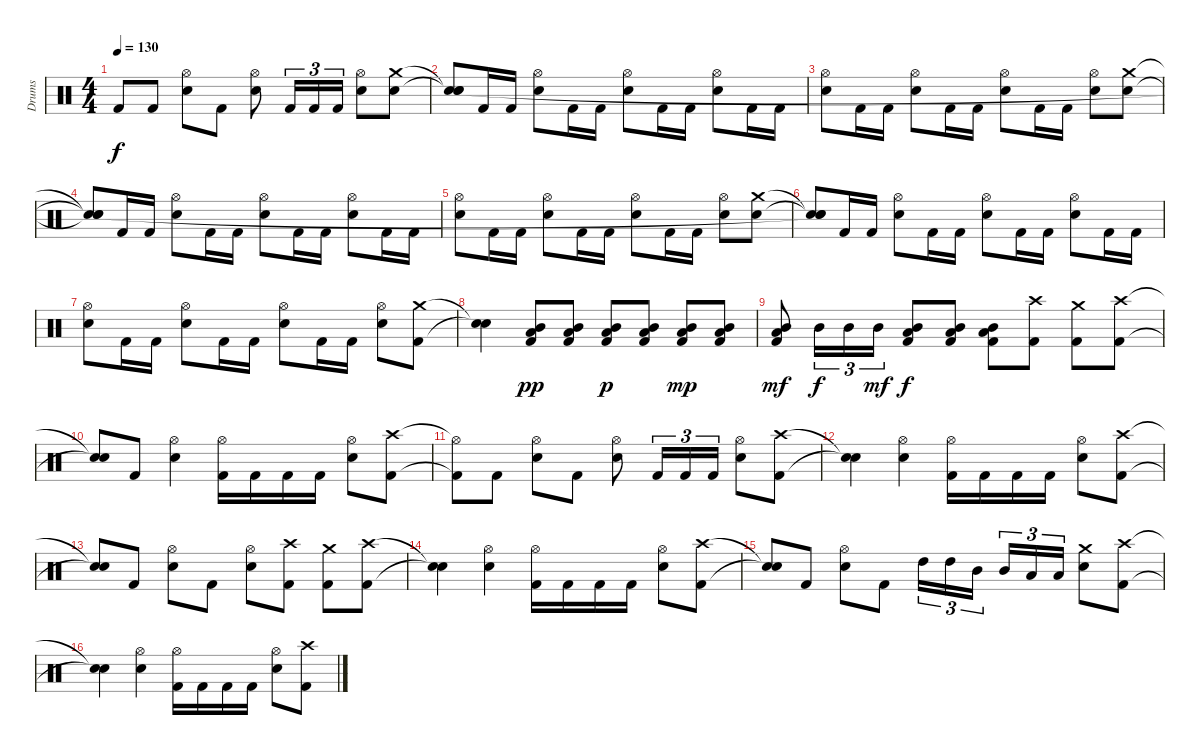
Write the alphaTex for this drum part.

\track ("Drums" "Drums") {instrument percussion}
\staff {score}
\articulation defaults
\ts (4 4)
\tempo 130
\clef neutral
\ks c "Kick (hit) 2".8{dy f} "Kick (hit) 2".8
("Hi-Hat (open)" "Snare (hit) 2").8 "Kick (hit) 2".8 ("Hi-Hat (open)" "Snare (hit) 2").8 "Kick (hit) 2".16{tu (3 2)} "Kick (hit) 2".16{tu (3 2)} "Kick (hit) 2".16{tu (3 2)} ("Hi-Hat (open)" "Snare (hit) 2").8 ("Crash medium (hit)" "Snare (hit) 2").8 |
("Snare (hit)"{t} "Snare (hit)"{t} "Snare (hit)").8 "Kick (hit) 2".16 "Kick (hit) 2".16 ("Hi-Hat (open)" "Snare (hit) 2").8 "Kick (hit) 2".16 "Kick (hit) 2".16 ("Hi-Hat (open)" "Snare (hit) 2").8 "Kick (hit) 2".16 "Kick (hit) 2".16 ("Hi-Hat (open)" "Snare (hit) 2").8 "Kick (hit) 2".16 "Kick (hit) 2".16 |
("Hi-Hat (open)" "Snare (hit) 2").8 "Kick (hit) 2".16 "Kick (hit) 2".16 ("Hi-Hat (open)" "Snare (hit) 2").8 "Kick (hit) 2".16 "Kick (hit) 2".16 ("Hi-Hat (open)" "Snare (hit) 2").8 "Kick (hit) 2".16 "Kick (hit) 2".16 ("Hi-Hat (open)" "Snare (hit) 2").8 ("Crash medium (hit)" "Snare (hit) 2").8 |
("Snare (hit)"{t} "Snare (hit)"{t} "Snare (hit)"{t}).8 "Kick (hit) 2".16 "Kick (hit) 2".16 ("Hi-Hat (open)" "Snare (hit) 2").8 "Kick (hit) 2".16 "Kick (hit) 2".16 ("Hi-Hat (open)" "Snare (hit) 2").8 "Kick (hit) 2".16 "Kick (hit) 2".16 ("Hi-Hat (open)" "Snare (hit) 2").8 "Kick (hit) 2".16 "Kick (hit) 2".16 |
("Hi-Hat (open)" "Snare (hit) 2").8 "Kick (hit) 2".16 "Kick (hit) 2".16 ("Hi-Hat (open)" "Snare (hit) 2").8 "Kick (hit) 2".16 "Kick (hit) 2".16 ("Hi-Hat (open)" "Snare (hit) 2").8 "Kick (hit) 2".16 "Kick (hit) 2".16 ("Hi-Hat (open)" "Snare (hit) 2").8 ("Crash medium (hit)" "Snare (hit) 2").8 |
("Snare (hit)"{t} "Snare (hit)"{t} "Snare (hit)"{t}).8 "Kick (hit) 2".16 "Kick (hit) 2".16 ("Hi-Hat (open)" "Snare (hit) 2").8 "Kick (hit) 2".16 "Kick (hit) 2".16 ("Hi-Hat (open)" "Snare (hit) 2").8 "Kick (hit) 2".16 "Kick (hit) 2".16 ("Hi-Hat (open)" "Snare (hit) 2").8 "Kick (hit) 2".16 "Kick (hit) 2".16 |
("Hi-Hat (open)" "Snare (hit) 2").8 "Kick (hit) 2".16 "Kick (hit) 2".16 ("Hi-Hat (open)" "Snare (hit) 2").8 "Kick (hit) 2".16 "Kick (hit) 2".16 ("Hi-Hat (open)" "Snare (hit) 2").8 "Kick (hit) 2".16 "Kick (hit) 2".16 ("Hi-Hat (open)" "Snare (hit) 2").8 ("Crash medium (hit)" "Kick (hit) 2").8 |
("Snare (hit)"{t} "Snare (hit)"{t}).4 ("Mid Tom (hit)" "Low Tom (hit)" "Kick (hit) 2").8{dy pp} ("Mid Tom (hit)" "Low Tom (hit)" "Kick (hit) 2").8 ("Mid Tom (hit)" "Low Tom (hit)" "Kick (hit) 2").8{dy p} ("Mid Tom (hit)" "Low Tom (hit)" "Kick (hit) 2").8 ("Mid Tom (hit)" "Low Tom (hit)" "Kick (hit) 2").8{dy mp} ("Mid Tom (hit)" "Low Tom (hit)" "Kick (hit) 2").8 |
("Mid Tom (hit)" "Low Tom (hit)" "Kick (hit) 2").8{dy mf} "Mid Tom (hit)".16{tu (3 2) dy f} "Mid Tom (hit)".16{tu (3 2)} "Mid Tom (hit)".16{tu (3 2) dy mf} ("Mid Tom (hit)" "Low Tom (hit)" "Kick (hit) 2").8{dy f} ("Mid Tom (hit)" "Low Tom (hit)" "Kick (hit) 2").8 ("Mid Tom (hit)" "Low Tom (hit)" "Kick (hit) 2").8 ("Crash high (hit)" "Kick (hit) 2").8 ("Crash medium (hit)" "Kick (hit) 2").8 ("Crash high (hit)" "Kick (hit) 2").8 |
("Snare (hit)"{t} "Snare (hit)"{t}).8 "Kick (hit) 2".8 ("Snare (hit) 2" "Hi-Hat (open)").4 ("Kick (hit) 2" "Hi-Hat (open)").16 "Kick (hit) 2".16 "Kick (hit) 2".16 "Kick (hit) 2".16 ("Snare (hit) 2" "Hi-Hat (open)").8 ("Kick (hit) 2" "Crash high (hit)").8 |
("Kick (hit) 2"{t} "Hi-Hat (open)"{t}).8 "Kick (hit) 2".8 ("Snare (hit) 2" "Hi-Hat (open)").8 "Kick (hit) 2".8 ("Snare (hit) 2" "Hi-Hat (open)").8 "Kick (hit) 2".16{tu (3 2)} "Kick (hit) 2".16{tu (3 2)} "Kick (hit) 2".16{tu (3 2)} ("Snare (hit) 2" "Hi-Hat (open)").8 ("Kick (hit) 2" "Crash high (hit)").8 |
("Snare (hit)"{t} "Snare (hit)"{t}).4 ("Snare (hit) 2" "Hi-Hat (open)").4 ("Kick (hit) 2" "Hi-Hat (open)").16 "Kick (hit) 2".16 "Kick (hit) 2".16 "Kick (hit) 2".16 ("Snare (hit) 2" "Hi-Hat (open)").8 ("Kick (hit) 2" "Crash high (hit)").8 |
("Snare (hit)"{t} "Snare (hit)"{t}).8 "Kick (hit) 2".8 ("Snare (hit) 2" "Hi-Hat (open)").8 "Kick (hit) 2".8 ("Snare (hit) 2" "Hi-Hat (open)").8 ("Crash high (hit)" "Kick (hit) 2").8 ("Crash medium (hit)" "Kick (hit) 2").8 ("Crash high (hit)" "Kick (hit) 2").8 |
("Snare (hit)"{t} "Snare (hit)"{t}).4 ("Snare (hit) 2" "Hi-Hat (open)").4 ("Kick (hit) 2" "Hi-Hat (open)").16 "Kick (hit) 2".16 "Kick (hit) 2".16 "Kick (hit) 2".16 ("Snare (hit) 2" "Hi-Hat (open)").8 ("Kick (hit) 2" "Crash high (hit)").8 |
("Snare (hit)"{t} "Snare (hit)"{t}).8 "Kick (hit) 2".8 ("Snare (hit) 2" "Hi-Hat (open)").8 "Kick (hit) 2".8 "High Tom (hit)".16{tu (3 2)} "High Tom (hit)".16{tu (3 2)} "Mid Tom (hit)".16{tu (3 2) beam splitsecondary} "Mid Tom (hit)".16{tu (3 2)} "Low Tom (hit)".16{tu (3 2)} "Low Tom (hit)".16{tu (3 2)} ("Snare (hit) 2" "Crash medium (hit)").8 ("Kick (hit) 2" "Crash high (hit)").8 |
("Snare (hit)"{t} "Snare (hit)"{t}).4 ("Snare (hit) 2" "Hi-Hat (open)").4 ("Kick (hit) 2" "Hi-Hat (open)").16 "Kick (hit) 2".16 "Kick (hit) 2".16 "Kick (hit) 2".16 ("Snare (hit) 2" "Hi-Hat (open)").8 ("Kick (hit) 2" "Crash high (hit)").8
